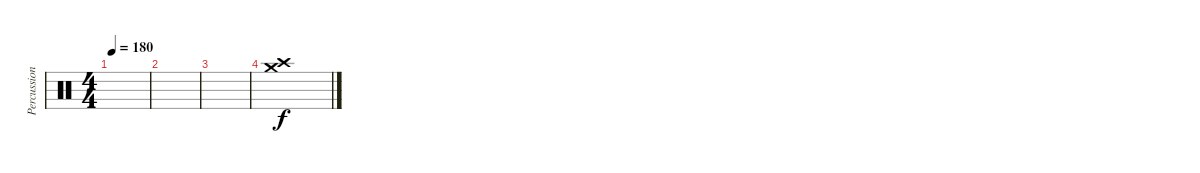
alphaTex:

\track ("Percussion" "Percussion") {instrument percussion}
\staff {score}
\articulation defaults
\ts (4 4)
\tempo 180
\clef neutral
\ks c
|
|
|
("Crash high (hit)" "Crash medium (hit)").1
